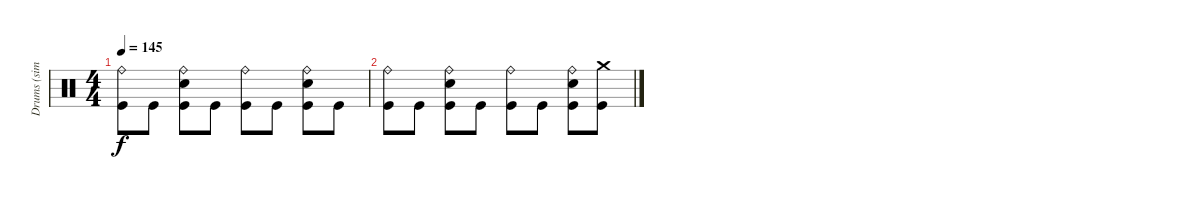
\track ("Drums (simple)" "Drums (sim") {instrument percussion}
\staff {score}
\articulation defaults
\ts (4 4)
\tempo 145
\clef neutral
\ks c
("Ride (bell)" "Kick (hit)").8{dy f} "Kick (hit)".8 ("Ride (bell)" "Snare (hit) 2" "Kick (hit)").8 "Kick (hit)".8 ("Ride (bell)" "Kick (hit)").8 "Kick (hit)".8 ("Ride (bell)" "Snare (hit) 2" "Kick (hit)").8 "Kick (hit)".8 |
("Ride (bell)" "Kick (hit)").8 "Kick (hit)".8 ("Ride (bell)" "Snare (hit) 2" "Kick (hit)").8 "Kick (hit)".8 ("Ride (bell)" "Kick (hit)").8 "Kick (hit)".8 ("Ride (bell)" "Snare (hit) 2" "Kick (hit)").8 ("Crash medium (hit)" "Kick (hit)").8
